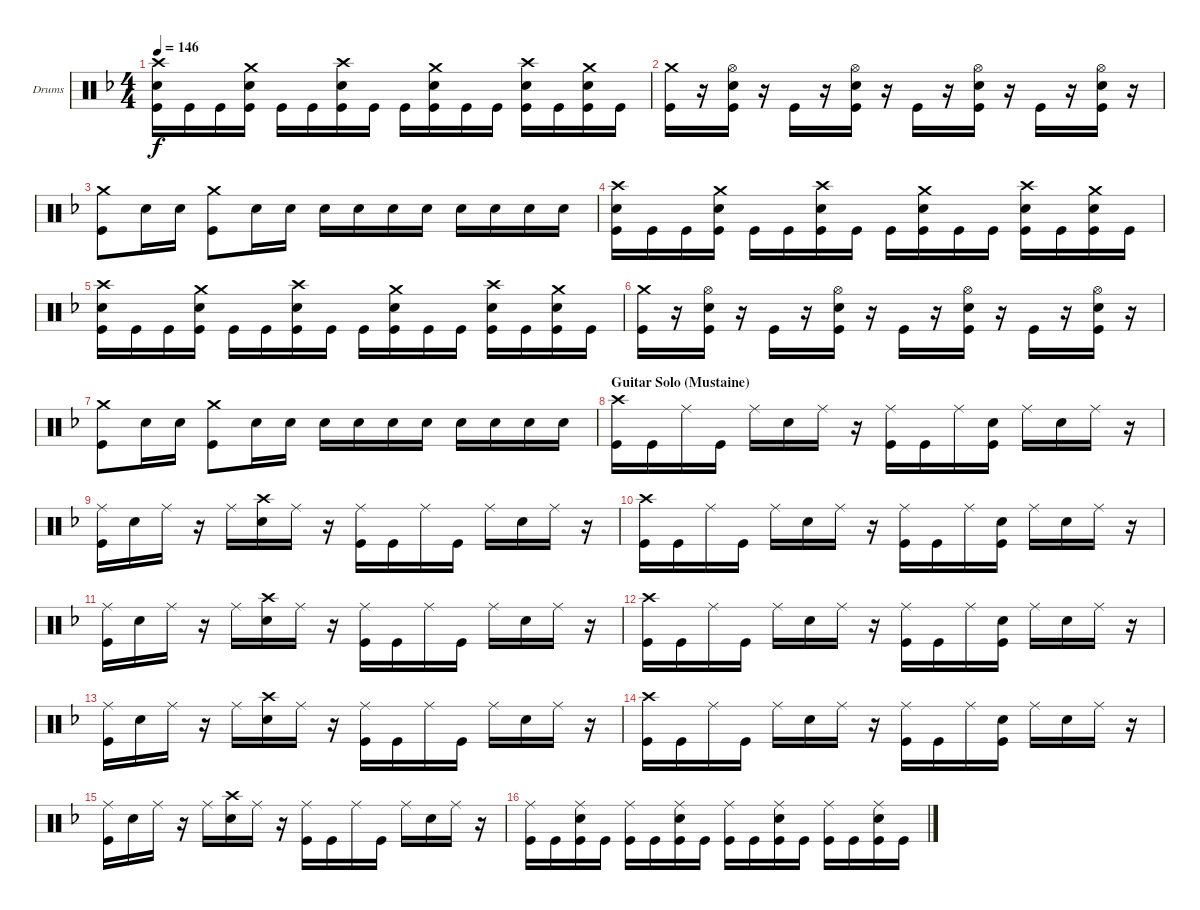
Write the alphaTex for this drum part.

\defaultSystemsLayout 4
\bracketExtendMode groupsimilarinstruments
\firstSystemTrackNameOrientation horizontal
\otherSystemsTrackNameOrientation horizontal
\track ("Gar Samuelson (Drums)" "Drums") {instrument percussion}
\staff {score}
\articulation defaults
\ts (4 4)
\tempo 146
\clef neutral
\scale
0.333333
\ks dminor
("Crash high (hit)" "Snare (hit) 2" "Kick (hit)").16{dy f} "Kick (hit)".16 "Kick (hit)".16 ("Crash medium (hit)" "Snare (hit) 2" "Kick (hit)").16 "Kick (hit)".16 "Kick (hit)".16 ("Crash high (hit)" "Snare (hit) 2" "Kick (hit)").16 "Kick (hit)".16 "Kick (hit)".16 ("Crash medium (hit)" "Snare (hit) 2" "Kick (hit)").16 "Kick (hit)".16 "Kick (hit)".16 ("Crash high (hit)" "Snare (hit) 2" "Kick (hit)").16 "Kick (hit)".16 ("Crash medium (hit)" "Snare (hit) 2" "Kick (hit)").16 "Kick (hit)".16 |
\scale
0.333333 ("Crash medium (hit)" "Kick (hit)").16 r.16 ("Hi-Hat (open)" "Snare (hit) 2" "Kick (hit)").16 r.16 "Kick (hit)".16 r.16 ("Hi-Hat (open)" "Snare (hit) 2" "Kick (hit)").16 r.16 "Kick (hit)".16 r.16 ("Hi-Hat (open)" "Snare (hit) 2" "Kick (hit)").16 r.16 "Kick (hit)".16 r.16 ("Hi-Hat (open)" "Snare (hit) 2" "Kick (hit)").16 r.16 |
\scale
0.333333 ("Crash medium (hit)" "Kick (hit)").8 "Snare (hit) 2".16 "Snare (hit) 2".16 ("Crash medium (hit)" "Kick (hit)").8 "Snare (hit) 2".16 "Snare (hit) 2".16 "Snare (hit) 2".16 "Snare (hit) 2".16 "Snare (hit) 2".16 "Snare (hit) 2".16 "Snare (hit) 2".16 "Snare (hit) 2".16 "Snare (hit) 2".16 "Snare (hit) 2".16 |
\scale
0.333333 ("Crash high (hit)" "Snare (hit) 2" "Kick (hit)").16 "Kick (hit)".16 "Kick (hit)".16 ("Crash medium (hit)" "Snare (hit) 2" "Kick (hit)").16 "Kick (hit)".16 "Kick (hit)".16 ("Crash high (hit)" "Snare (hit) 2" "Kick (hit)").16 "Kick (hit)".16 "Kick (hit)".16 ("Crash medium (hit)" "Snare (hit) 2" "Kick (hit)").16 "Kick (hit)".16 "Kick (hit)".16 ("Crash high (hit)" "Snare (hit) 2" "Kick (hit)").16 "Kick (hit)".16 ("Crash medium (hit)" "Snare (hit) 2" "Kick (hit)").16 "Kick (hit)".16 |
\scale
0.333333 ("Crash high (hit)" "Snare (hit) 2" "Kick (hit)").16 "Kick (hit)".16 "Kick (hit)".16 ("Crash medium (hit)" "Snare (hit) 2" "Kick (hit)").16 "Kick (hit)".16 "Kick (hit)".16 ("Crash high (hit)" "Snare (hit) 2" "Kick (hit)").16 "Kick (hit)".16 "Kick (hit)".16 ("Crash medium (hit)" "Snare (hit) 2" "Kick (hit)").16 "Kick (hit)".16 "Kick (hit)".16 ("Crash high (hit)" "Snare (hit) 2" "Kick (hit)").16 "Kick (hit)".16 ("Crash medium (hit)" "Snare (hit) 2" "Kick (hit)").16 "Kick (hit)".16 |
\scale
0.333333 ("Crash medium (hit)" "Kick (hit)").16 r.16 ("Hi-Hat (open)" "Snare (hit) 2" "Kick (hit)").16 r.16 "Kick (hit)".16 r.16 ("Hi-Hat (open)" "Snare (hit) 2" "Kick (hit)").16 r.16 "Kick (hit)".16 r.16 ("Hi-Hat (open)" "Snare (hit) 2" "Kick (hit)").16 r.16 "Kick (hit)".16 r.16 ("Hi-Hat (open)" "Snare (hit) 2" "Kick (hit)").16 r.16 |
\scale
0.333333 ("Crash medium (hit)" "Kick (hit)").8 "Snare (hit) 2".16 "Snare (hit) 2".16 ("Crash medium (hit)" "Kick (hit)").8 "Snare (hit) 2".16 "Snare (hit) 2".16 "Snare (hit) 2".16 "Snare (hit) 2".16 "Snare (hit) 2".16 "Snare (hit) 2".16 "Snare (hit) 2".16 "Snare (hit) 2".16 "Snare (hit) 2".16 "Snare (hit) 2".16 |
\section ("" "Guitar Solo (Mustaine)")
\scale
0.333333 ("Crash high (hit)" "Kick (hit)").16 "Kick (hit)".16 "Ride (middle)".16 "Kick (hit)".16 "Ride (middle)".16 "Snare (hit) 2".16 "Ride (middle)".16 r.16 ("Ride (middle)" "Kick (hit)").16 "Kick (hit)".16 "Ride (middle)".16 ("Snare (hit) 2" "Kick (hit)").16 "Ride (middle)".16 "Snare (hit) 2".16 "Ride (middle)".16 r.16 |
\scale
0.333333 ("Ride (middle)" "Kick (hit)").16 "Snare (hit) 2".16 "Ride (middle)".16 r.16 "Ride (middle)".16 ("Crash high (hit)" "Snare (hit) 2").16 "Ride (middle)".16 r.16 ("Ride (middle)" "Kick (hit)").16 "Kick (hit)".16 "Ride (middle)".16 "Kick (hit)".16 "Ride (middle)".16 "Snare (hit) 2".16 "Ride (middle)".16 r.16 |
\scale
0.333333 ("Crash high (hit)" "Kick (hit)").16 "Kick (hit)".16 "Ride (middle)".16 "Kick (hit)".16 "Ride (middle)".16 "Snare (hit) 2".16 "Ride (middle)".16 r.16 ("Ride (middle)" "Kick (hit)").16 "Kick (hit)".16 "Ride (middle)".16 ("Snare (hit) 2" "Kick (hit)").16 "Ride (middle)".16 "Snare (hit) 2".16 "Ride (middle)".16 r.16 |
\scale
0.333333 ("Ride (middle)" "Kick (hit)").16 "Snare (hit) 2".16 "Ride (middle)".16 r.16 "Ride (middle)".16 ("Crash high (hit)" "Snare (hit) 2").16 "Ride (middle)".16 r.16 ("Ride (middle)" "Kick (hit)").16 "Kick (hit)".16 "Ride (middle)".16 "Kick (hit)".16 "Ride (middle)".16 "Snare (hit) 2".16 "Ride (middle)".16 r.16 |
\scale
0.333333 ("Crash high (hit)" "Kick (hit)").16 "Kick (hit)".16 "Ride (middle)".16 "Kick (hit)".16 "Ride (middle)".16 "Snare (hit) 2".16 "Ride (middle)".16 r.16 ("Ride (middle)" "Kick (hit)").16 "Kick (hit)".16 "Ride (middle)".16 ("Snare (hit) 2" "Kick (hit)").16 "Ride (middle)".16 "Snare (hit) 2".16 "Ride (middle)".16 r.16 |
\scale
0.333333 ("Ride (middle)" "Kick (hit)").16 "Snare (hit) 2".16 "Ride (middle)".16 r.16 "Ride (middle)".16 ("Crash high (hit)" "Snare (hit) 2").16 "Ride (middle)".16 r.16 ("Ride (middle)" "Kick (hit)").16 "Kick (hit)".16 "Ride (middle)".16 "Kick (hit)".16 "Ride (middle)".16 "Snare (hit) 2".16 "Ride (middle)".16 r.16 |
\scale
0.333333 ("Crash high (hit)" "Kick (hit)").16 "Kick (hit)".16 "Ride (middle)".16 "Kick (hit)".16 "Ride (middle)".16 "Snare (hit) 2".16 "Ride (middle)".16 r.16 ("Ride (middle)" "Kick (hit)").16 "Kick (hit)".16 "Ride (middle)".16 ("Snare (hit) 2" "Kick (hit)").16 "Ride (middle)".16 "Snare (hit) 2".16 "Ride (middle)".16 r.16 |
\scale
0.333333 ("Ride (middle)" "Kick (hit)").16 "Snare (hit) 2".16 "Ride (middle)".16 r.16 "Ride (middle)".16 ("Crash high (hit)" "Snare (hit) 2").16 "Ride (middle)".16 r.16 ("Ride (middle)" "Kick (hit)").16 "Kick (hit)".16 "Ride (middle)".16 "Kick (hit)".16 "Ride (middle)".16 "Snare (hit) 2".16 "Ride (middle)".16 r.16 |
\scale
0.333333 ("Ride (middle)" "Kick (hit)").16 "Kick (hit)".16 ("Ride (middle)" "Snare (hit) 2" "Kick (hit)").16 "Kick (hit)".16 ("Ride (middle)" "Kick (hit)").16 "Kick (hit)".16 ("Ride (middle)" "Snare (hit) 2" "Kick (hit)").16 "Kick (hit)".16 ("Ride (middle)" "Kick (hit)").16 "Kick (hit)".16 ("Ride (middle)" "Snare (hit) 2" "Kick (hit)").16 "Kick (hit)".16 ("Ride (middle)" "Kick (hit)").16 "Kick (hit)".16 ("Ride (middle)" "Snare (hit) 2" "Kick (hit)").16 "Kick (hit)".16
